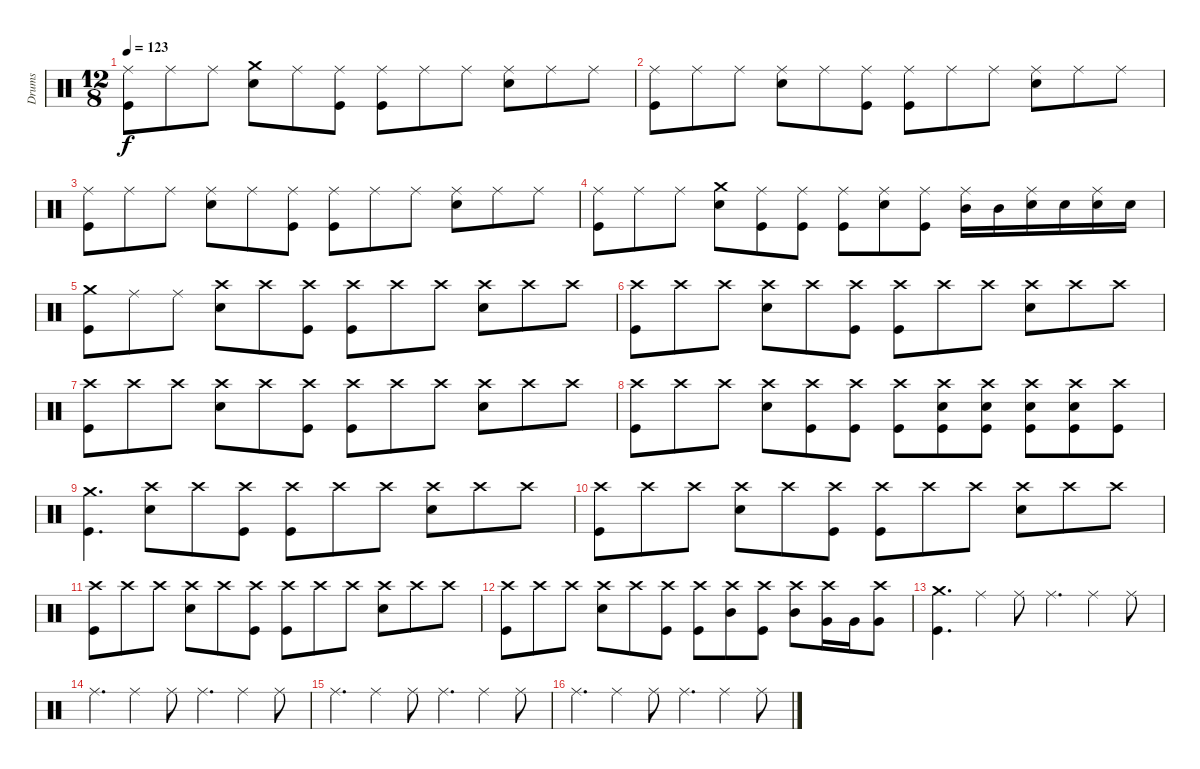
\track ("Drums" "Drums") {instrument percussion}
\staff {score}
\articulation defaults
\ts (12 8)
\tempo 123
\clef neutral
\ks c
("Ride (middle)" "Kick (hit)").8{dy f} "Ride (middle)".8 "Ride (middle)".8 ("Crash medium (hit)" "Snare (hit) 2").8 "Ride (middle)".8 ("Ride (middle)" "Kick (hit)").8 ("Ride (middle)" "Kick (hit)").8 "Ride (middle)".8 "Ride (middle)".8 ("Ride (middle)" "Snare (hit) 2").8 "Ride (middle)".8 "Ride (middle)".8 |
("Ride (middle)" "Kick (hit)").8 "Ride (middle)".8 "Ride (middle)".8 ("Ride (middle)" "Snare (hit) 2").8 "Ride (middle)".8 ("Ride (middle)" "Kick (hit)").8 ("Ride (middle)" "Kick (hit)").8 "Ride (middle)".8 "Ride (middle)".8 ("Ride (middle)" "Snare (hit) 2").8 "Ride (middle)".8 "Ride (middle)".8 |
("Ride (middle)" "Kick (hit)").8 "Ride (middle)".8 "Ride (middle)".8 ("Ride (middle)" "Snare (hit) 2").8 "Ride (middle)".8 ("Ride (middle)" "Kick (hit)").8 ("Ride (middle)" "Kick (hit)").8 "Ride (middle)".8 "Ride (middle)".8 ("Ride (middle)" "Snare (hit) 2").8 "Ride (middle)".8 "Ride (middle)".8 |
("Ride (middle)" "Kick (hit)").8 "Ride (middle)".8 "Ride (middle)".8 ("Crash medium (hit)" "Snare (hit) 2").8 ("Ride (middle)" "Kick (hit)").8 ("Ride (middle)" "Kick (hit)").8 ("Ride (middle)" "Kick (hit)").8 ("Ride (middle)" "Snare (hit) 2").8 ("Ride (middle)" "Kick (hit)").8 ("Ride (middle)" "Mid Tom (hit)").16 "Mid Tom (hit)".16 ("Ride (middle)" "Snare (hit) 2").16 "Snare (hit) 2".16 ("Ride (middle)" "Snare (hit) 2").16 "Snare (hit) 2".16 |
("Crash medium (hit)" "Kick (hit)").8 "Ride (middle)".8 "Ride (middle)".8 ("Crash high (hit)" "Snare (hit) 2").8 "Crash high (hit)".8 ("Crash high (hit)" "Kick (hit)").8 ("Crash high (hit)" "Kick (hit)").8 "Crash high (hit)".8 "Crash high (hit)".8 ("Crash high (hit)" "Snare (hit) 2").8 "Crash high (hit)".8 "Crash high (hit)".8 |
("Crash high (hit)" "Kick (hit)").8 "Crash high (hit)".8 "Crash high (hit)".8 ("Crash high (hit)" "Snare (hit) 2").8 "Crash high (hit)".8 ("Crash high (hit)" "Kick (hit)").8 ("Crash high (hit)" "Kick (hit)").8 "Crash high (hit)".8 "Crash high (hit)".8 ("Crash high (hit)" "Snare (hit) 2").8 "Crash high (hit)".8 "Crash high (hit)".8 |
("Crash high (hit)" "Kick (hit)").8 "Crash high (hit)".8 "Crash high (hit)".8 ("Crash high (hit)" "Snare (hit) 2").8 "Crash high (hit)".8 ("Crash high (hit)" "Kick (hit)").8 ("Crash high (hit)" "Kick (hit)").8 "Crash high (hit)".8 "Crash high (hit)".8 ("Crash high (hit)" "Snare (hit) 2").8 "Crash high (hit)".8 "Crash high (hit)".8 |
("Crash high (hit)" "Kick (hit)").8 "Crash high (hit)".8 "Crash high (hit)".8 ("Crash high (hit)" "Snare (hit) 2").8 ("Crash high (hit)" "Kick (hit)").8 ("Crash high (hit)" "Kick (hit)").8 ("Crash high (hit)" "Kick (hit)").8 ("Crash high (hit)" "Snare (hit) 2" "Kick (hit)").8 ("Crash high (hit)" "Snare (hit) 2" "Kick (hit)").8 ("Crash high (hit)" "Snare (hit) 2" "Kick (hit)").8 ("Crash high (hit)" "Snare (hit) 2" "Kick (hit)").8 ("Crash high (hit)" "Kick (hit)").8 |
("Crash medium (hit)" "Kick (hit)").4{d} ("Crash high (hit)" "Snare (hit) 2").8 "Crash high (hit)".8 ("Crash high (hit)" "Kick (hit)").8 ("Crash high (hit)" "Kick (hit)").8 "Crash high (hit)".8 "Crash high (hit)".8 ("Crash high (hit)" "Snare (hit) 2").8 "Crash high (hit)".8 "Crash high (hit)".8 |
("Crash high (hit)" "Kick (hit)").8 "Crash high (hit)".8 "Crash high (hit)".8 ("Crash high (hit)" "Snare (hit) 2").8 "Crash high (hit)".8 ("Crash high (hit)" "Kick (hit)").8 ("Crash high (hit)" "Kick (hit)").8 "Crash high (hit)".8 "Crash high (hit)".8 ("Crash high (hit)" "Snare (hit) 2").8 "Crash high (hit)".8 "Crash high (hit)".8 |
("Crash high (hit)" "Kick (hit)").8 "Crash high (hit)".8 "Crash high (hit)".8 ("Crash high (hit)" "Snare (hit) 2").8 "Crash high (hit)".8 ("Crash high (hit)" "Kick (hit)").8 ("Crash high (hit)" "Kick (hit)").8 "Crash high (hit)".8 "Crash high (hit)".8 ("Crash high (hit)" "Snare (hit) 2").8 "Crash high (hit)".8 "Crash high (hit)".8 |
("Crash high (hit)" "Kick (hit)").8 "Crash high (hit)".8 "Crash high (hit)".8 ("Crash high (hit)" "Snare (hit) 2").8 "Crash high (hit)".8 ("Crash high (hit)" "Kick (hit)").8 ("Crash high (hit)" "Kick (hit)").8 ("Crash high (hit)" "Mid Tom (hit)").8 ("Crash high (hit)" "Kick (hit)").8 ("Crash high (hit)" "Mid Tom (hit)").8 ("Crash high (hit)" "Very Low Tom (hit)").16 "Very Low Tom (hit)".16 ("Crash high (hit)" "Very Low Tom (hit)").8 |
("Crash medium (hit)" "Kick (hit)").4{d} "Ride (middle)".4 "Ride (middle)".8 "Ride (middle)".4{d} "Ride (middle)".4 "Ride (middle)".8 |
"Ride (middle)".4{d} "Ride (middle)".4 "Ride (middle)".8 "Ride (middle)".4{d} "Ride (middle)".4 "Ride (middle)".8 |
"Ride (middle)".4{d} "Ride (middle)".4 "Ride (middle)".8 "Ride (middle)".4{d} "Ride (middle)".4 "Ride (middle)".8 |
"Ride (middle)".4{d} "Ride (middle)".4 "Ride (middle)".8 "Ride (middle)".4{d} "Ride (middle)".4 "Ride (middle)".8
